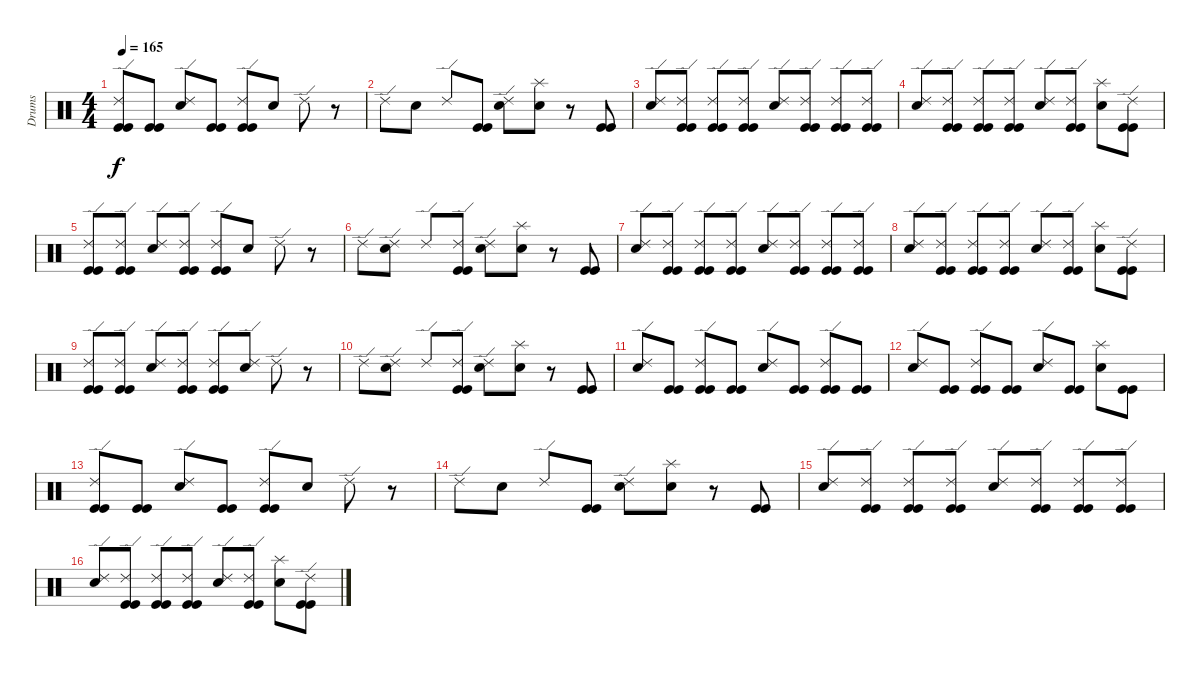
\track ("Drums" "Drums") {instrument percussion}
\staff {score}
\articulation defaults
\ts (4 4)
\tempo 165
\clef neutral
\ks c
("Ride (edge) 2" "Kick (hit)" "Kick (hit)").8{dy f} ("Kick (hit)" "Kick (hit)").8 ("Ride (edge) 2" "Snare (hit) 2").8 ("Kick (hit)" "Kick (hit)").8 ("Ride (edge) 2" "Kick (hit)" "Kick (hit)").8 "Snare (hit) 2".8 "Ride (edge) 2".8 r.8 |
"Ride (edge) 2".8 "Snare (hit) 2".8 "Ride (edge) 2".8 ("Kick (hit)" "Kick (hit)").8 ("Ride (edge) 2" "Snare (hit) 2").8 ("Splash (hit)" "Snare (hit) 2").8 r.8 ("Kick (hit)" "Kick (hit)").8 |
("Ride (edge) 2" "Snare (hit) 2").8 ("Ride (edge) 2" "Kick (hit)" "Kick (hit)").8 ("Ride (edge) 2" "Kick (hit)" "Kick (hit)").8 ("Ride (edge) 2" "Kick (hit)" "Kick (hit)").8 ("Ride (edge) 2" "Snare (hit) 2").8 ("Ride (edge) 2" "Kick (hit)" "Kick (hit)").8 ("Ride (edge) 2" "Kick (hit)" "Kick (hit)").8 ("Ride (edge) 2" "Kick (hit)" "Kick (hit)").8 |
("Ride (edge) 2" "Snare (hit) 2").8 ("Ride (edge) 2" "Kick (hit)" "Kick (hit)").8 ("Ride (edge) 2" "Kick (hit)" "Kick (hit)").8 ("Ride (edge) 2" "Kick (hit)" "Kick (hit)").8 ("Ride (edge) 2" "Snare (hit) 2").8 ("Ride (edge) 2" "Kick (hit)" "Kick (hit)").8 ("Splash (hit)" "Snare (hit) 2").8 ("Ride (edge) 2" "Kick (hit)" "Kick (hit)").8 |
("Ride (edge) 2" "Kick (hit)" "Kick (hit)").8 ("Ride (edge) 2" "Kick (hit)" "Kick (hit)").8 ("Ride (edge) 2" "Snare (hit) 2").8 ("Ride (edge) 2" "Kick (hit)" "Kick (hit)").8 ("Ride (edge) 2" "Kick (hit)" "Kick (hit)").8 "Snare (hit) 2".8 "Ride (edge) 2".8 r.8 |
"Ride (edge) 2".8 ("Ride (edge) 2" "Snare (hit) 2").8 "Ride (edge) 2".8 ("Ride (edge) 2" "Kick (hit)" "Kick (hit)").8 ("Ride (edge) 2" "Snare (hit) 2").8 ("Splash (hit)" "Snare (hit) 2").8 r.8 ("Kick (hit)" "Kick (hit)").8 |
("Ride (edge) 2" "Snare (hit) 2").8 ("Ride (edge) 2" "Kick (hit)" "Kick (hit)").8 ("Ride (edge) 2" "Kick (hit)" "Kick (hit)").8 ("Ride (edge) 2" "Kick (hit)" "Kick (hit)").8 ("Ride (edge) 2" "Snare (hit) 2").8 ("Ride (edge) 2" "Kick (hit)" "Kick (hit)").8 ("Ride (edge) 2" "Kick (hit)" "Kick (hit)").8 ("Ride (edge) 2" "Kick (hit)" "Kick (hit)").8 |
("Ride (edge) 2" "Snare (hit) 2").8 ("Ride (edge) 2" "Kick (hit)" "Kick (hit)").8 ("Ride (edge) 2" "Kick (hit)" "Kick (hit)").8 ("Ride (edge) 2" "Kick (hit)" "Kick (hit)").8 ("Ride (edge) 2" "Snare (hit) 2").8 ("Ride (edge) 2" "Kick (hit)" "Kick (hit)").8 ("Splash (hit)" "Snare (hit) 2").8 ("Ride (edge) 2" "Kick (hit)" "Kick (hit)").8 |
("Ride (edge) 2" "Kick (hit)" "Kick (hit)").8 ("Ride (edge) 2" "Kick (hit)" "Kick (hit)").8 ("Ride (edge) 2" "Snare (hit) 2").8 ("Ride (edge) 2" "Kick (hit)" "Kick (hit)").8 ("Ride (edge) 2" "Kick (hit)" "Kick (hit)").8 ("Ride (edge) 2" "Snare (hit) 2").8 "Ride (edge) 2".8 r.8 |
"Ride (edge) 2".8 ("Ride (edge) 2" "Snare (hit) 2").8 "Ride (edge) 2".8 ("Ride (edge) 2" "Kick (hit)" "Kick (hit)").8 ("Ride (edge) 2" "Snare (hit) 2").8 ("Splash (hit)" "Snare (hit) 2").8 r.8 ("Kick (hit)" "Kick (hit)").8 |
("Ride (edge) 2" "Snare (hit) 2").8 ("Kick (hit)" "Kick (hit)").8 ("Ride (edge) 2" "Kick (hit)" "Kick (hit)").8 ("Kick (hit)" "Kick (hit)").8 ("Ride (edge) 2" "Snare (hit) 2").8 ("Kick (hit)" "Kick (hit)").8 ("Ride (edge) 2" "Kick (hit)" "Kick (hit)").8 ("Kick (hit)" "Kick (hit)").8 |
("Ride (edge) 2" "Snare (hit) 2").8 ("Kick (hit)" "Kick (hit)").8 ("Ride (edge) 2" "Kick (hit)" "Kick (hit)").8 ("Kick (hit)" "Kick (hit)").8 ("Ride (edge) 2" "Snare (hit) 2").8 ("Kick (hit)" "Kick (hit)").8 ("Splash (hit)" "Snare (hit) 2").8 ("Kick (hit)" "Kick (hit)").8 |
("Ride (edge) 2" "Kick (hit)" "Kick (hit)").8 ("Kick (hit)" "Kick (hit)").8 ("Ride (edge) 2" "Snare (hit) 2").8 ("Kick (hit)" "Kick (hit)").8 ("Ride (edge) 2" "Kick (hit)" "Kick (hit)").8 "Snare (hit) 2".8 "Ride (edge) 2".8 r.8 |
"Ride (edge) 2".8 "Snare (hit) 2".8 "Ride (edge) 2".8 ("Kick (hit)" "Kick (hit)").8 ("Ride (edge) 2" "Snare (hit) 2").8 ("Splash (hit)" "Snare (hit) 2").8 r.8 ("Kick (hit)" "Kick (hit)").8 |
("Ride (edge) 2" "Snare (hit) 2").8 ("Ride (edge) 2" "Kick (hit)" "Kick (hit)").8 ("Ride (edge) 2" "Kick (hit)" "Kick (hit)").8 ("Ride (edge) 2" "Kick (hit)" "Kick (hit)").8 ("Ride (edge) 2" "Snare (hit) 2").8 ("Ride (edge) 2" "Kick (hit)" "Kick (hit)").8 ("Ride (edge) 2" "Kick (hit)" "Kick (hit)").8 ("Ride (edge) 2" "Kick (hit)" "Kick (hit)").8 |
("Ride (edge) 2" "Snare (hit) 2").8 ("Ride (edge) 2" "Kick (hit)" "Kick (hit)").8 ("Ride (edge) 2" "Kick (hit)" "Kick (hit)").8 ("Ride (edge) 2" "Kick (hit)" "Kick (hit)").8 ("Ride (edge) 2" "Snare (hit) 2").8 ("Ride (edge) 2" "Kick (hit)" "Kick (hit)").8 ("Splash (hit)" "Snare (hit) 2").8 ("Ride (edge) 2" "Kick (hit)" "Kick (hit)").8
